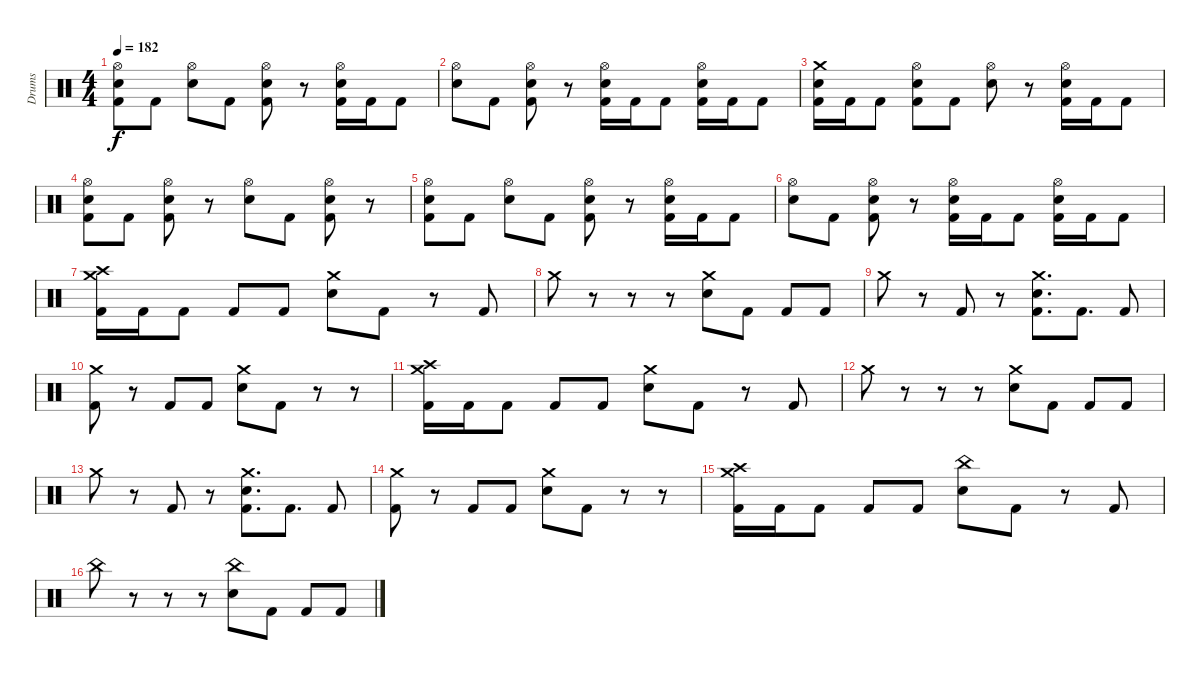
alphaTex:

\track ("Drums" "Drums") {instrument percussion}
\staff {score}
\articulation defaults
\ts (4 4)
\tempo 182
\clef neutral
\ks c
("Hi-Hat (open)" "Electric Snare (hit)" "Kick (hit) 2").8{dy f} "Kick (hit) 2".8 ("Hi-Hat (open)" "Electric Snare (hit)").8 "Kick (hit) 2".8 ("Hi-Hat (open)" "Electric Snare (hit)" "Kick (hit) 2").8 r.8 ("Hi-Hat (open)" "Electric Snare (hit)" "Kick (hit) 2").16 "Kick (hit) 2".16 "Kick (hit) 2".8 |
("Hi-Hat (open)" "Electric Snare (hit)").8 "Kick (hit) 2".8 ("Hi-Hat (open)" "Electric Snare (hit)" "Kick (hit) 2").8 r.8 ("Hi-Hat (open)" "Electric Snare (hit)" "Kick (hit) 2").16 "Kick (hit) 2".16 "Kick (hit) 2".8 ("Hi-Hat (open)" "Electric Snare (hit)" "Kick (hit) 2").16 "Kick (hit) 2".16 "Kick (hit) 2".8 |
("Crash medium (hit)" "Electric Snare (hit)" "Kick (hit) 2").16 "Kick (hit) 2".16 "Kick (hit) 2".8 ("Hi-Hat (open)" "Electric Snare (hit)" "Kick (hit) 2").8 "Kick (hit) 2".8 ("Hi-Hat (open)" "Electric Snare (hit)").8 r.8 ("Hi-Hat (open)" "Electric Snare (hit)" "Kick (hit) 2").16 "Kick (hit) 2".16 "Kick (hit) 2".8 |
("Hi-Hat (open)" "Electric Snare (hit)" "Kick (hit) 2").8 "Kick (hit) 2".8 ("Hi-Hat (open)" "Electric Snare (hit)" "Kick (hit) 2").8 r.8 ("Hi-Hat (open)" "Electric Snare (hit)").8 "Kick (hit) 2".8 ("Hi-Hat (open)" "Electric Snare (hit)" "Kick (hit) 2").8 r.8 |
("Hi-Hat (open)" "Electric Snare (hit)" "Kick (hit) 2").8 "Kick (hit) 2".8 ("Hi-Hat (open)" "Electric Snare (hit)").8 "Kick (hit) 2".8 ("Hi-Hat (open)" "Electric Snare (hit)" "Kick (hit) 2").8 r.8 ("Hi-Hat (open)" "Electric Snare (hit)" "Kick (hit) 2").16 "Kick (hit) 2".16 "Kick (hit) 2".8 |
("Hi-Hat (open)" "Electric Snare (hit)").8 "Kick (hit) 2".8 ("Hi-Hat (open)" "Electric Snare (hit)" "Kick (hit) 2").8 r.8 ("Hi-Hat (open)" "Electric Snare (hit)" "Kick (hit) 2").16 "Kick (hit) 2".16 "Kick (hit) 2".8 ("Hi-Hat (open)" "Electric Snare (hit)" "Kick (hit) 2").16 "Kick (hit) 2".16 "Kick (hit) 2".8 |
("Crash medium (hit)" "Crash high (hit)" "Kick (hit) 2").16 "Kick (hit) 2".16 "Kick (hit) 2".8 "Kick (hit) 2".8 "Kick (hit) 2".8 ("Crash medium (hit)" "Electric Snare (hit)").8 "Kick (hit) 2".8 r.8 "Kick (hit) 2".8 |
"Crash medium (hit)".8 r.8 r.8 r.8 ("Crash medium (hit)" "Electric Snare (hit)").8 "Kick (hit) 2".8 "Kick (hit) 2".8 "Kick (hit) 2".8 |
"Crash medium (hit)".8 r.8 "Kick (hit) 2".8 r.8 ("Crash medium (hit)" "Electric Snare (hit)" "Kick (hit) 2").8{d} "Kick (hit) 2".8{d} "Kick (hit) 2".8 |
("Crash medium (hit)" "Kick (hit) 2").8 r.8 "Kick (hit) 2".8 "Kick (hit) 2".8 ("Crash medium (hit)" "Electric Snare (hit)").8 "Kick (hit) 2".8 r.8 r.8 |
("Crash medium (hit)" "Crash high (hit)" "Kick (hit) 2").16 "Kick (hit) 2".16 "Kick (hit) 2".8 "Kick (hit) 2".8 "Kick (hit) 2".8 ("Crash medium (hit)" "Electric Snare (hit)").8 "Kick (hit) 2".8 r.8 "Kick (hit) 2".8 |
"Crash medium (hit)".8 r.8 r.8 r.8 ("Crash medium (hit)" "Electric Snare (hit)").8 "Kick (hit) 2".8 "Kick (hit) 2".8 "Kick (hit) 2".8 |
"Crash medium (hit)".8 r.8 "Kick (hit) 2".8 r.8 ("Crash medium (hit)" "Electric Snare (hit)" "Kick (hit) 2").8{d} "Kick (hit) 2".8{d} "Kick (hit) 2".8 |
("Crash medium (hit)" "Kick (hit) 2").8 r.8 "Kick (hit) 2".8 "Kick (hit) 2".8 ("Crash medium (hit)" "Electric Snare (hit)").8 "Kick (hit) 2".8 r.8 r.8 |
("Crash medium (hit)" "Crash high (hit)" "Kick (hit) 2").16 "Kick (hit) 2".16 "Kick (hit) 2".8 "Kick (hit) 2".8 "Kick (hit) 2".8 ("China (hit)" "Electric Snare (hit)").8 "Kick (hit) 2".8 r.8 "Kick (hit) 2".8 |
"China (hit)".8 r.8 r.8 r.8 ("China (hit)" "Electric Snare (hit)").8 "Kick (hit) 2".8 "Kick (hit) 2".8 "Kick (hit) 2".8
